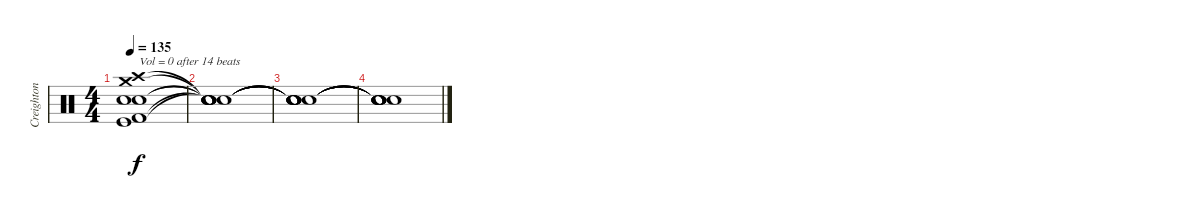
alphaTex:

\track ("Creighton Barrett (Drums)" "Creighton ") {instrument percussion}
\staff {score}
\articulation defaults
\ts (4 4)
\tempo 135
\clef neutral
\ks c
("Crash high (hit)" "Crash medium (hit)" "Electric Snare (hit)" "Snare (hit) 2" "Kick (hit)" "Kick (hit) 2").1{txt "Vol = 0 after 14 beats" dy f} |
("Snare (hit)"{t} "Snare (hit)"{t} "Snare (hit)"{t} "Snare (hit)"{t} "Snare (hit)"{t} "Snare (hit)"{t}).1 |
("Snare (hit)"{t} "Snare (hit)"{t} "Snare (hit)"{t} "Snare (hit)"{t} "Snare (hit)"{t} "Snare (hit)"{t}).1 |
("Snare (hit)"{t} "Snare (hit)"{t} "Snare (hit)"{t} "Snare (hit)"{t} "Snare (hit)"{t} "Snare (hit)"{t}).1
